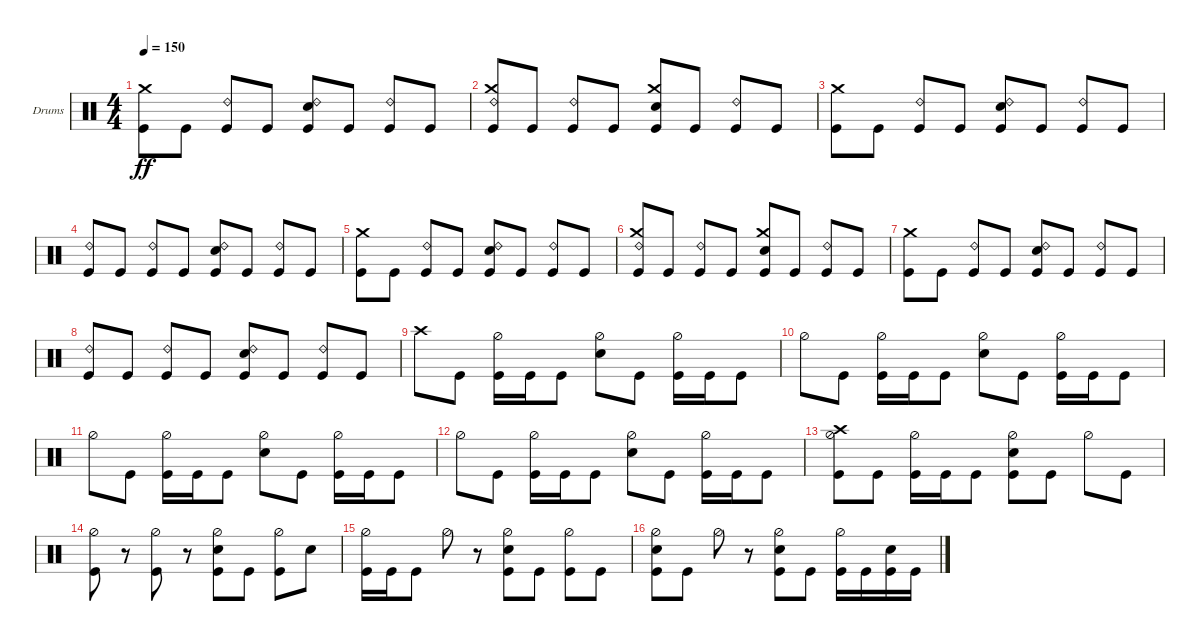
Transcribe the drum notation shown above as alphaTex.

\bracketExtendMode groupsimilarinstruments
\firstSystemTrackNameOrientation horizontal
\otherSystemsTrackNameOrientation horizontal
\track ("Corey" "Drums") {instrument percussion}
\staff {score}
\articulation defaults
\ts (4 4)
\tempo 150
\clef neutral
\ks c
("Kick (hit)" "Crash medium (hit)").8{dy ff} "Kick (hit)".8 ("Kick (hit)" "Ride (bell) 2").8 "Kick (hit)".8 ("Kick (hit)" "Snare (hit) 2" "Ride (bell) 2").8 "Kick (hit)".8 ("Kick (hit)" "Ride (bell) 2").8 "Kick (hit)".8 |
("Kick (hit)" "Ride (bell) 2" "Crash medium (hit)").8 "Kick (hit)".8 ("Kick (hit)" "Ride (bell) 2").8 "Kick (hit)".8 ("Kick (hit)" "Crash medium (hit)" "Snare (hit) 2").8 "Kick (hit)".8 ("Kick (hit)" "Ride (bell) 2").8 "Kick (hit)".8 |
("Kick (hit)" "Crash medium (hit)").8 "Kick (hit)".8 ("Kick (hit)" "Ride (bell) 2").8 "Kick (hit)".8 ("Kick (hit)" "Snare (hit) 2" "Ride (bell) 2").8 "Kick (hit)".8 ("Kick (hit)" "Ride (bell) 2").8 "Kick (hit)".8 |
("Kick (hit)" "Ride (bell) 2").8 "Kick (hit)".8 ("Kick (hit)" "Ride (bell) 2").8 "Kick (hit)".8 ("Kick (hit)" "Snare (hit) 2" "Ride (bell) 2").8 "Kick (hit)".8 ("Kick (hit)" "Ride (bell) 2").8 "Kick (hit)".8 |
("Kick (hit)" "Crash medium (hit)").8 "Kick (hit)".8 ("Kick (hit)" "Ride (bell) 2").8 "Kick (hit)".8 ("Kick (hit)" "Snare (hit) 2" "Ride (bell) 2").8 "Kick (hit)".8 ("Kick (hit)" "Ride (bell) 2").8 "Kick (hit)".8 |
("Kick (hit)" "Ride (bell) 2" "Crash medium (hit)").8 "Kick (hit)".8 ("Kick (hit)" "Ride (bell) 2").8 "Kick (hit)".8 ("Kick (hit)" "Crash medium (hit)" "Snare (hit) 2").8 "Kick (hit)".8 ("Kick (hit)" "Ride (bell) 2").8 "Kick (hit)".8 |
("Kick (hit)" "Crash medium (hit)").8 "Kick (hit)".8 ("Kick (hit)" "Ride (bell) 2").8 "Kick (hit)".8 ("Kick (hit)" "Snare (hit) 2" "Ride (bell) 2").8 "Kick (hit)".8 ("Kick (hit)" "Ride (bell) 2").8 "Kick (hit)".8 |
("Kick (hit)" "Ride (bell) 2").8 "Kick (hit)".8 ("Kick (hit)" "Ride (bell) 2").8 "Kick (hit)".8 ("Kick (hit)" "Snare (hit) 2" "Ride (bell) 2").8 "Kick (hit)".8 ("Kick (hit)" "Ride (bell) 2").8 "Kick (hit)".8 |
"Crash high (hit)".8 "Kick (hit)".8 ("Kick (hit)" "Hi-Hat (half)").16 "Kick (hit)".16 "Kick (hit)".8 ("Hi-Hat (half)" "Snare (hit) 2").8 "Kick (hit)".8 ("Kick (hit)" "Hi-Hat (half)").16 "Kick (hit)".16 "Kick (hit)".8 |
"Hi-Hat (half)".8 "Kick (hit)".8 ("Kick (hit)" "Hi-Hat (half)").16 "Kick (hit)".16 "Kick (hit)".8 ("Hi-Hat (half)" "Snare (hit) 2").8 "Kick (hit)".8 ("Kick (hit)" "Hi-Hat (half)").16 "Kick (hit)".16 "Kick (hit)".8 |
"Hi-Hat (half)".8 "Kick (hit)".8 ("Kick (hit)" "Hi-Hat (half)").16 "Kick (hit)".16 "Kick (hit)".8 ("Hi-Hat (half)" "Snare (hit) 2").8 "Kick (hit)".8 ("Kick (hit)" "Hi-Hat (half)").16 "Kick (hit)".16 "Kick (hit)".8 |
"Hi-Hat (half)".8 "Kick (hit)".8 ("Kick (hit)" "Hi-Hat (half)").16 "Kick (hit)".16 "Kick (hit)".8 ("Hi-Hat (half)" "Snare (hit) 2").8 "Kick (hit)".8 ("Kick (hit)" "Hi-Hat (half)").16 "Kick (hit)".16 "Kick (hit)".8 |
("Kick (hit)" "Hi-Hat (half)" "Crash high (hit)").8 "Kick (hit)".8 ("Kick (hit)" "Hi-Hat (half)").16 "Kick (hit)".16 "Kick (hit)".8 ("Kick (hit)" "Hi-Hat (half)" "Snare (hit) 2").8 "Kick (hit)".8 "Hi-Hat (half)".8 "Kick (hit)".8 |
("Kick (hit)" "Hi-Hat (half)").8 r.8 ("Kick (hit)" "Hi-Hat (half)").8 r.8 ("Kick (hit)" "Hi-Hat (half)" "Snare (hit) 2").8 "Kick (hit)".8 ("Kick (hit)" "Hi-Hat (half)").8 "Snare (hit) 2".8 |
("Kick (hit)" "Hi-Hat (half)").16 "Kick (hit)".16 "Kick (hit)".8 "Hi-Hat (half)".8 r.8 ("Kick (hit)" "Hi-Hat (half)" "Snare (hit) 2").8 "Kick (hit)".8 ("Kick (hit)" "Hi-Hat (half)").8 "Kick (hit)".8 |
("Kick (hit)" "Hi-Hat (half)" "Snare (hit) 2").8 "Kick (hit)".8 "Hi-Hat (half)".8 r.8 ("Kick (hit)" "Hi-Hat (half)" "Snare (hit) 2").8 "Kick (hit)".8 ("Kick (hit)" "Hi-Hat (half)").16 "Kick (hit)".16 ("Kick (hit)" "Snare (hit) 2").16 "Kick (hit)".16
